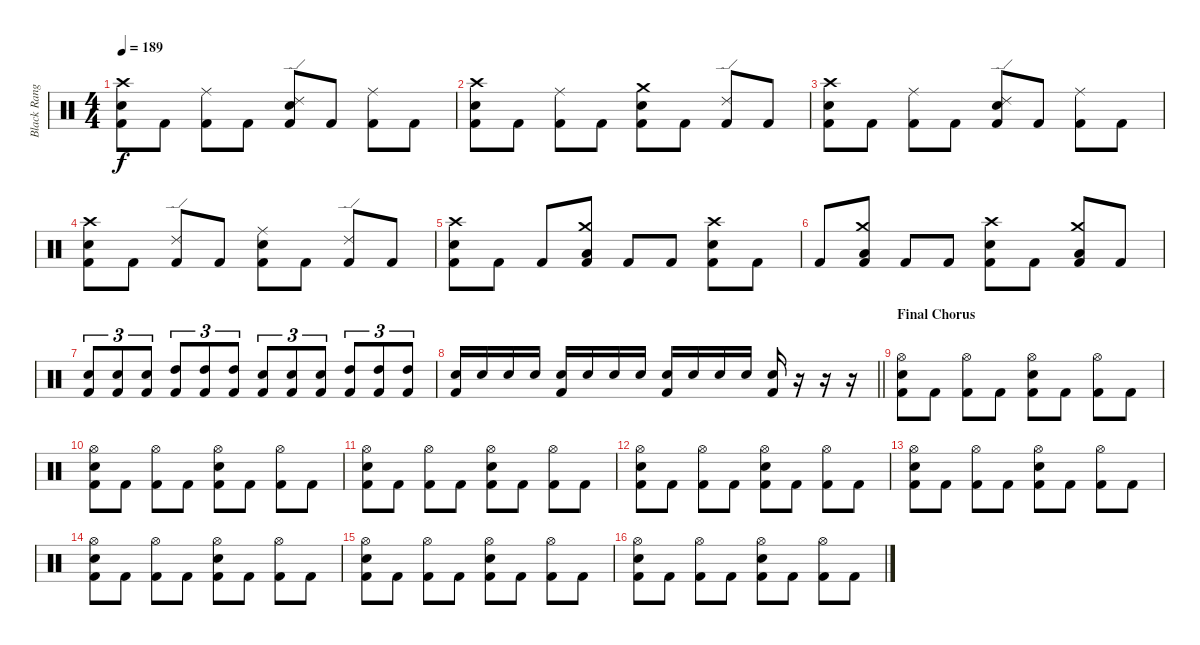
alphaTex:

\track ("Black Ranger (Drums)" "Black Rang") {instrument percussion}
\staff {score}
\articulation defaults
\ts (4 4)
\tempo 189
\clef neutral
\ks c
("Kick (hit) 2" "Snare (hit) 2" "Crash high (hit)").8{dy f} "Kick (hit) 2".8 ("Kick (hit) 2" "Ride (middle)").8 "Kick (hit) 2".8 ("Kick (hit) 2" "Snare (hit) 2" "Ride (edge) 2").8 "Kick (hit) 2".8 ("Kick (hit) 2" "Ride (middle)").8 "Kick (hit) 2".8 |
("Kick (hit) 2" "Snare (hit) 2" "Crash high (hit)").8 "Kick (hit) 2".8 ("Kick (hit) 2" "Ride (middle)").8 "Kick (hit) 2".8 ("Kick (hit) 2" "Snare (hit) 2" "Crash medium (hit)").8 "Kick (hit) 2".8 ("Kick (hit) 2" "Ride (edge) 2").8 "Kick (hit) 2".8 |
("Kick (hit) 2" "Snare (hit) 2" "Crash high (hit)").8 "Kick (hit) 2".8 ("Kick (hit) 2" "Ride (middle)").8 "Kick (hit) 2".8 ("Kick (hit) 2" "Snare (hit) 2" "Ride (edge) 2").8 "Kick (hit) 2".8 ("Kick (hit) 2" "Ride (middle)").8 "Kick (hit) 2".8 |
("Kick (hit) 2" "Snare (hit) 2" "Crash high (hit)").8 "Kick (hit) 2".8 ("Kick (hit) 2" "Ride (edge) 2").8 "Kick (hit) 2".8 ("Kick (hit) 2" "Snare (hit) 2" "Ride (middle)").8 "Kick (hit) 2".8 ("Kick (hit) 2" "Ride (edge) 2").8 "Kick (hit) 2".8 |
("Kick (hit) 2" "Crash high (hit)" "Snare (hit) 2").8 "Kick (hit) 2".8 "Kick (hit) 2".8 ("Kick (hit) 2" "Crash medium (hit)" "Low Tom (hit)").8 "Kick (hit) 2".8 "Kick (hit) 2".8 ("Kick (hit) 2" "Crash high (hit)" "Snare (hit) 2").8 "Kick (hit) 2".8 |
"Kick (hit) 2".8 ("Kick (hit) 2" "Crash medium (hit)" "Low Tom (hit)").8 "Kick (hit) 2".8 "Kick (hit) 2".8 ("Kick (hit) 2" "Crash high (hit)" "Snare (hit) 2").8 "Kick (hit) 2".8 ("Kick (hit) 2" "Crash medium (hit)" "Low Tom (hit)").8 "Kick (hit) 2".8 |
("Kick (hit) 2" "Snare (hit) 2").8{tu (3 2)} ("Kick (hit) 2" "Snare (hit) 2").8{tu (3 2)} ("Kick (hit) 2" "Snare (hit) 2").8{tu (3 2)} ("Kick (hit) 2" "High Tom (hit)").8{tu (3 2)} ("Kick (hit) 2" "High Tom (hit)").8{tu (3 2)} ("Kick (hit) 2" "High Tom (hit)").8{tu (3 2)} ("Kick (hit) 2" "Snare (hit) 2").8{tu (3 2)} ("Kick (hit) 2" "Snare (hit) 2").8{tu (3 2)} ("Kick (hit) 2" "Snare (hit) 2").8{tu (3 2)} ("Kick (hit) 2" "High Tom (hit)").8{tu (3 2)} ("Kick (hit) 2" "High Tom (hit)").8{tu (3 2)} ("Kick (hit) 2" "High Tom (hit)").8{tu (3 2)} |
\barLineRight lightlight
("Snare (hit) 2" "Kick (hit) 2").16 "Snare (hit) 2".16 "Snare (hit) 2".16 "Snare (hit) 2".16 ("Snare (hit) 2" "Kick (hit) 2").16 "Snare (hit) 2".16 "Snare (hit) 2".16 "Snare (hit) 2".16 ("Snare (hit) 2" "Kick (hit) 2").16 "Snare (hit) 2".16 "Snare (hit) 2".16 "Snare (hit) 2".16 ("Snare (hit) 2" "Kick (hit) 2").16 r.16 r.16 r.16 |
\section ("" "Final Chorus")
("Kick (hit) 2" "Snare (hit) 2" "Hi-Hat (open)").8 "Kick (hit) 2".8 ("Kick (hit) 2" "Hi-Hat (open)").8 "Kick (hit) 2".8 ("Kick (hit) 2" "Snare (hit) 2" "Hi-Hat (open)").8 "Kick (hit) 2".8 ("Kick (hit) 2" "Hi-Hat (open)").8 "Kick (hit) 2".8 |
("Kick (hit) 2" "Snare (hit) 2" "Hi-Hat (open)").8 "Kick (hit) 2".8 ("Kick (hit) 2" "Hi-Hat (open)").8 "Kick (hit) 2".8 ("Kick (hit) 2" "Snare (hit) 2" "Hi-Hat (open)").8 "Kick (hit) 2".8 ("Kick (hit) 2" "Hi-Hat (open)").8 "Kick (hit) 2".8 |
("Kick (hit) 2" "Snare (hit) 2" "Hi-Hat (open)").8 "Kick (hit) 2".8 ("Kick (hit) 2" "Hi-Hat (open)").8 "Kick (hit) 2".8 ("Kick (hit) 2" "Snare (hit) 2" "Hi-Hat (open)").8 "Kick (hit) 2".8 ("Kick (hit) 2" "Hi-Hat (open)").8 "Kick (hit) 2".8 |
("Kick (hit) 2" "Snare (hit) 2" "Hi-Hat (open)").8 "Kick (hit) 2".8 ("Kick (hit) 2" "Hi-Hat (open)").8 "Kick (hit) 2".8 ("Kick (hit) 2" "Snare (hit) 2" "Hi-Hat (open)").8 "Kick (hit) 2".8 ("Kick (hit) 2" "Hi-Hat (open)").8 "Kick (hit) 2".8 |
("Kick (hit) 2" "Snare (hit) 2" "Hi-Hat (open)").8 "Kick (hit) 2".8 ("Kick (hit) 2" "Hi-Hat (open)").8 "Kick (hit) 2".8 ("Kick (hit) 2" "Snare (hit) 2" "Hi-Hat (open)").8 "Kick (hit) 2".8 ("Kick (hit) 2" "Hi-Hat (open)").8 "Kick (hit) 2".8 |
("Kick (hit) 2" "Snare (hit) 2" "Hi-Hat (open)").8 "Kick (hit) 2".8 ("Kick (hit) 2" "Hi-Hat (open)").8 "Kick (hit) 2".8 ("Kick (hit) 2" "Snare (hit) 2" "Hi-Hat (open)").8 "Kick (hit) 2".8 ("Kick (hit) 2" "Hi-Hat (open)").8 "Kick (hit) 2".8 |
("Kick (hit) 2" "Snare (hit) 2" "Hi-Hat (open)").8 "Kick (hit) 2".8 ("Kick (hit) 2" "Hi-Hat (open)").8 "Kick (hit) 2".8 ("Kick (hit) 2" "Snare (hit) 2" "Hi-Hat (open)").8 "Kick (hit) 2".8 ("Kick (hit) 2" "Hi-Hat (open)").8 "Kick (hit) 2".8 |
("Kick (hit) 2" "Snare (hit) 2" "Hi-Hat (open)").8 "Kick (hit) 2".8 ("Kick (hit) 2" "Hi-Hat (open)").8 "Kick (hit) 2".8 ("Kick (hit) 2" "Snare (hit) 2" "Hi-Hat (open)").8 "Kick (hit) 2".8 ("Kick (hit) 2" "Hi-Hat (open)").8 "Kick (hit) 2".8
